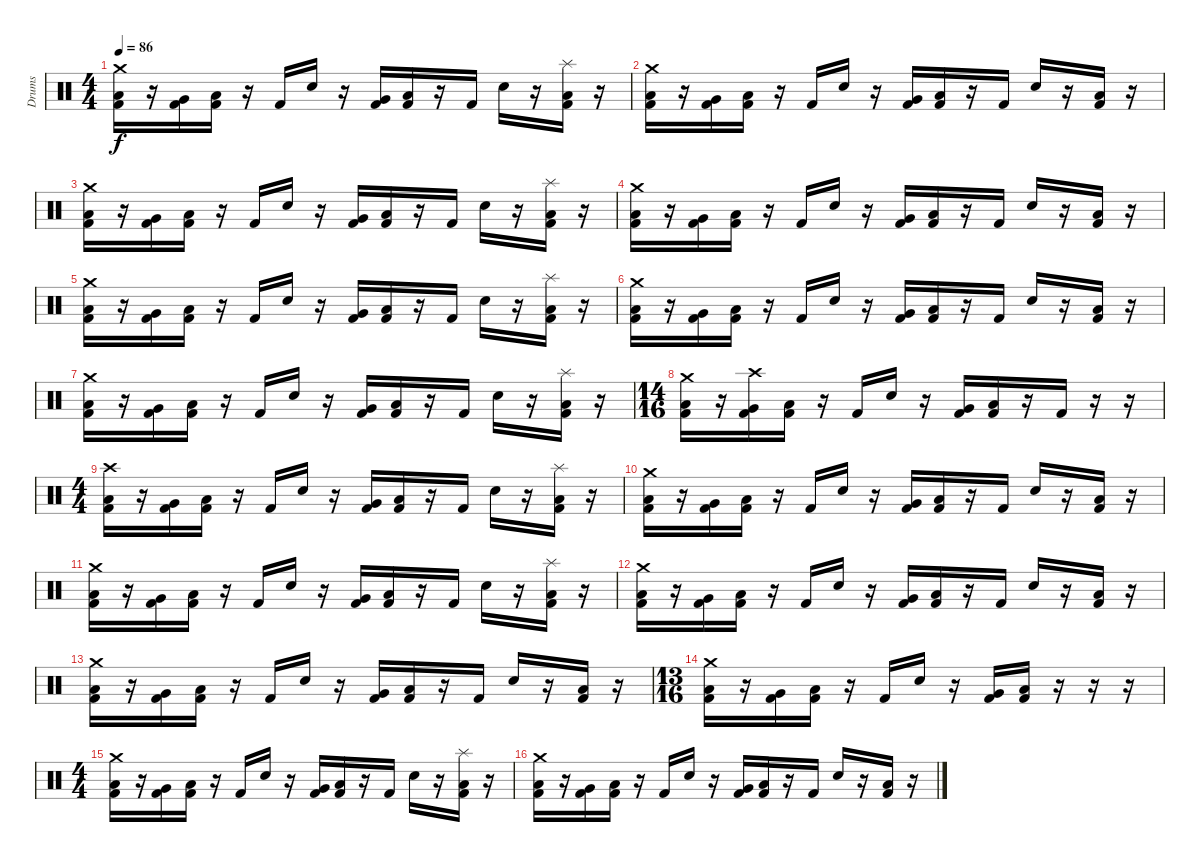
\track ("Drums" "Drums") {instrument percussion}
\staff {score}
\articulation defaults
\ts (4 4)
\tempo 86
\clef neutral
\ks c
("Crash medium (hit)" "Low Floor Tom (hit)" "Kick (hit) 2").16{dy f} r.16 ("Very Low Tom (hit)" "Kick (hit) 2").16 ("Low Floor Tom (hit)" "Kick (hit) 2").16 r.16 "Kick (hit) 2".16 "Electric Snare (hit)".16 r.16 ("Very Low Tom (hit)" "Kick (hit) 2").16 ("Low Floor Tom (hit)" "Kick (hit) 2").16 r.16 "Kick (hit) 2".16 "Electric Snare (hit)".16 r.16 ("Splash (hit)" "Low Floor Tom (hit)" "Kick (hit) 2").16 r.16 |
("Crash medium (hit)" "Low Floor Tom (hit)" "Kick (hit) 2").16 r.16 ("Very Low Tom (hit)" "Kick (hit) 2").16 ("Low Floor Tom (hit)" "Kick (hit) 2").16 r.16 "Kick (hit) 2".16 "Electric Snare (hit)".16 r.16 ("Very Low Tom (hit)" "Kick (hit) 2").16 ("Low Floor Tom (hit)" "Kick (hit) 2").16 r.16 "Kick (hit) 2".16 "Electric Snare (hit)".16 r.16 ("Low Floor Tom (hit)" "Kick (hit) 2").16 r.16 |
("Crash medium (hit)" "Low Floor Tom (hit)" "Kick (hit) 2").16 r.16 ("Very Low Tom (hit)" "Kick (hit) 2").16 ("Low Floor Tom (hit)" "Kick (hit) 2").16 r.16 "Kick (hit) 2".16 "Electric Snare (hit)".16 r.16 ("Very Low Tom (hit)" "Kick (hit) 2").16 ("Low Floor Tom (hit)" "Kick (hit) 2").16 r.16 "Kick (hit) 2".16 "Electric Snare (hit)".16 r.16 ("Splash (hit)" "Low Floor Tom (hit)" "Kick (hit) 2").16 r.16 |
("Crash medium (hit)" "Low Floor Tom (hit)" "Kick (hit) 2").16 r.16 ("Very Low Tom (hit)" "Kick (hit) 2").16 ("Low Floor Tom (hit)" "Kick (hit) 2").16 r.16 "Kick (hit) 2".16 "Electric Snare (hit)".16 r.16 ("Very Low Tom (hit)" "Kick (hit) 2").16 ("Low Floor Tom (hit)" "Kick (hit) 2").16 r.16 "Kick (hit) 2".16 "Electric Snare (hit)".16 r.16 ("Low Floor Tom (hit)" "Kick (hit) 2").16 r.16 |
("Crash medium (hit)" "Low Floor Tom (hit)" "Kick (hit) 2").16 r.16 ("Very Low Tom (hit)" "Kick (hit) 2").16 ("Low Floor Tom (hit)" "Kick (hit) 2").16 r.16 "Kick (hit) 2".16 "Electric Snare (hit)".16 r.16 ("Very Low Tom (hit)" "Kick (hit) 2").16 ("Low Floor Tom (hit)" "Kick (hit) 2").16 r.16 "Kick (hit) 2".16 "Electric Snare (hit)".16 r.16 ("Splash (hit)" "Low Floor Tom (hit)" "Kick (hit) 2").16 r.16 |
("Crash medium (hit)" "Low Floor Tom (hit)" "Kick (hit) 2").16 r.16 ("Very Low Tom (hit)" "Kick (hit) 2").16 ("Low Floor Tom (hit)" "Kick (hit) 2").16 r.16 "Kick (hit) 2".16 "Electric Snare (hit)".16 r.16 ("Very Low Tom (hit)" "Kick (hit) 2").16 ("Low Floor Tom (hit)" "Kick (hit) 2").16 r.16 "Kick (hit) 2".16 "Electric Snare (hit)".16 r.16 ("Low Floor Tom (hit)" "Kick (hit) 2").16 r.16 |
("Crash medium (hit)" "Low Floor Tom (hit)" "Kick (hit) 2").16 r.16 ("Very Low Tom (hit)" "Kick (hit) 2").16 ("Low Floor Tom (hit)" "Kick (hit) 2").16 r.16 "Kick (hit) 2".16 "Electric Snare (hit)".16 r.16 ("Very Low Tom (hit)" "Kick (hit) 2").16 ("Low Floor Tom (hit)" "Kick (hit) 2").16 r.16 "Kick (hit) 2".16 "Electric Snare (hit)".16 r.16 ("Splash (hit)" "Low Floor Tom (hit)" "Kick (hit) 2").16 r.16 |
\ts (14 16)
("Crash medium (hit)" "Low Floor Tom (hit)" "Kick (hit) 2").16 r.16 ("Crash high (hit)" "Very Low Tom (hit)" "Kick (hit) 2").16 ("Low Floor Tom (hit)" "Kick (hit) 2").16 r.16 "Kick (hit) 2".16 "Electric Snare (hit)".16 r.16 ("Very Low Tom (hit)" "Kick (hit) 2").16 ("Low Floor Tom (hit)" "Kick (hit) 2").16 r.16 "Kick (hit) 2".16 r.16 r.16 |
\ts (4 4)
("Crash high (hit)" "Low Floor Tom (hit)" "Kick (hit) 2").16 r.16 ("Very Low Tom (hit)" "Kick (hit) 2").16 ("Low Floor Tom (hit)" "Kick (hit) 2").16 r.16 "Kick (hit) 2".16 "Electric Snare (hit)".16 r.16 ("Very Low Tom (hit)" "Kick (hit) 2").16 ("Low Floor Tom (hit)" "Kick (hit) 2").16 r.16 "Kick (hit) 2".16 "Electric Snare (hit)".16 r.16 ("Splash (hit)" "Low Floor Tom (hit)" "Kick (hit) 2").16 r.16 |
("Crash medium (hit)" "Low Floor Tom (hit)" "Kick (hit) 2").16 r.16 ("Very Low Tom (hit)" "Kick (hit) 2").16 ("Low Floor Tom (hit)" "Kick (hit) 2").16 r.16 "Kick (hit) 2".16 "Electric Snare (hit)".16 r.16 ("Very Low Tom (hit)" "Kick (hit) 2").16 ("Low Floor Tom (hit)" "Kick (hit) 2").16 r.16 "Kick (hit) 2".16 "Electric Snare (hit)".16 r.16 ("Low Floor Tom (hit)" "Kick (hit) 2").16 r.16 |
("Crash medium (hit)" "Low Floor Tom (hit)" "Kick (hit) 2").16 r.16 ("Very Low Tom (hit)" "Kick (hit) 2").16 ("Low Floor Tom (hit)" "Kick (hit) 2").16 r.16 "Kick (hit) 2".16 "Electric Snare (hit)".16 r.16 ("Very Low Tom (hit)" "Kick (hit) 2").16 ("Low Floor Tom (hit)" "Kick (hit) 2").16 r.16 "Kick (hit) 2".16 "Electric Snare (hit)".16 r.16 ("Splash (hit)" "Low Floor Tom (hit)" "Kick (hit) 2").16 r.16 |
("Crash medium (hit)" "Low Floor Tom (hit)" "Kick (hit) 2").16 r.16 ("Very Low Tom (hit)" "Kick (hit) 2").16 ("Low Floor Tom (hit)" "Kick (hit) 2").16 r.16 "Kick (hit) 2".16 "Electric Snare (hit)".16 r.16 ("Very Low Tom (hit)" "Kick (hit) 2").16 ("Low Floor Tom (hit)" "Kick (hit) 2").16 r.16 "Kick (hit) 2".16 "Electric Snare (hit)".16 r.16 ("Low Floor Tom (hit)" "Kick (hit) 2").16 r.16 |
("Crash medium (hit)" "Low Floor Tom (hit)" "Kick (hit) 2").16 r.16 ("Very Low Tom (hit)" "Kick (hit) 2").16 ("Low Floor Tom (hit)" "Kick (hit) 2").16 r.16 "Kick (hit) 2".16 "Electric Snare (hit)".16 r.16 ("Very Low Tom (hit)" "Kick (hit) 2").16 ("Low Floor Tom (hit)" "Kick (hit) 2").16 r.16 "Kick (hit) 2".16 "Electric Snare (hit)".16 r.16 ("Low Floor Tom (hit)" "Kick (hit) 2").16 r.16 |
\ts (13 16)
("Crash medium (hit)" "Low Floor Tom (hit)" "Kick (hit) 2").16 r.16 ("Very Low Tom (hit)" "Kick (hit) 2").16 ("Low Floor Tom (hit)" "Kick (hit) 2").16 r.16 "Kick (hit) 2".16 "Electric Snare (hit)".16 r.16 ("Very Low Tom (hit)" "Kick (hit) 2").16 ("Low Floor Tom (hit)" "Kick (hit) 2").16 r.16 r.16 r.16 |
\ts (4 4)
("Crash medium (hit)" "Low Floor Tom (hit)" "Kick (hit) 2").16 r.16 ("Very Low Tom (hit)" "Kick (hit) 2").16 ("Low Floor Tom (hit)" "Kick (hit) 2").16 r.16 "Kick (hit) 2".16 "Electric Snare (hit)".16 r.16 ("Very Low Tom (hit)" "Kick (hit) 2").16 ("Low Floor Tom (hit)" "Kick (hit) 2").16 r.16 "Kick (hit) 2".16 "Electric Snare (hit)".16 r.16 ("Splash (hit)" "Low Floor Tom (hit)" "Kick (hit) 2").16 r.16 |
("Crash medium (hit)" "Low Floor Tom (hit)" "Kick (hit) 2").16 r.16 ("Very Low Tom (hit)" "Kick (hit) 2").16 ("Low Floor Tom (hit)" "Kick (hit) 2").16 r.16 "Kick (hit) 2".16 "Electric Snare (hit)".16 r.16 ("Very Low Tom (hit)" "Kick (hit) 2").16 ("Low Floor Tom (hit)" "Kick (hit) 2").16 r.16 "Kick (hit) 2".16 "Electric Snare (hit)".16 r.16 ("Low Floor Tom (hit)" "Kick (hit) 2").16 r.16
